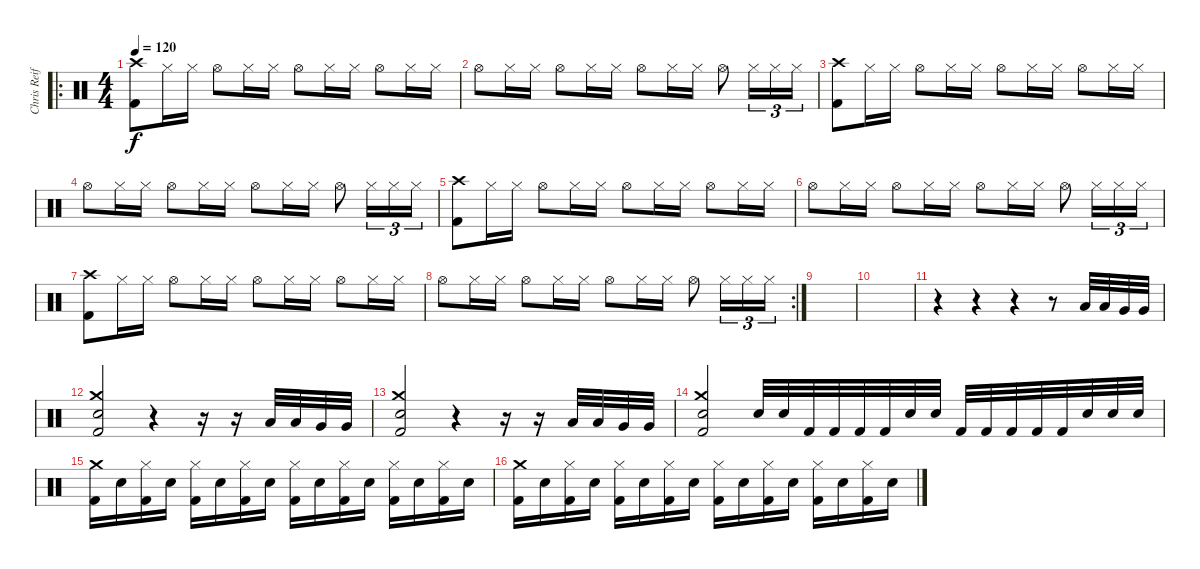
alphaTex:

\track ("Chris Reifert" "Chris Reif") {instrument percussion}
\staff {score}
\articulation defaults
\ro
\ts (4 4)
\tempo 120
\clef neutral
\ks c
("Crash high (hit)" "Kick (hit) 2").8{dy f} "Hi-Hat (closed)".16 "Hi-Hat (closed)".16 "Hi-Hat (open)".8 "Hi-Hat (closed)".16 "Hi-Hat (closed)".16 "Hi-Hat (open)".8 "Hi-Hat (closed)".16 "Hi-Hat (closed)".16 "Hi-Hat (open)".8 "Hi-Hat (closed)".16 "Hi-Hat (closed)".16 |
"Hi-Hat (open)".8 "Hi-Hat (closed)".16 "Hi-Hat (closed)".16 "Hi-Hat (open)".8 "Hi-Hat (closed)".16 "Hi-Hat (closed)".16 "Hi-Hat (open)".8 "Hi-Hat (closed)".16 "Hi-Hat (closed)".16 "Hi-Hat (open)".8 "Hi-Hat (closed)".16{tu (3 2)} "Hi-Hat (closed)".16{tu (3 2)} "Hi-Hat (closed)".16{tu (3 2)} |
("Crash high (hit)" "Kick (hit) 2").8 "Hi-Hat (closed)".16 "Hi-Hat (closed)".16 "Hi-Hat (open)".8 "Hi-Hat (closed)".16 "Hi-Hat (closed)".16 "Hi-Hat (open)".8 "Hi-Hat (closed)".16 "Hi-Hat (closed)".16 "Hi-Hat (open)".8 "Hi-Hat (closed)".16 "Hi-Hat (closed)".16 |
"Hi-Hat (open)".8 "Hi-Hat (closed)".16 "Hi-Hat (closed)".16 "Hi-Hat (open)".8 "Hi-Hat (closed)".16 "Hi-Hat (closed)".16 "Hi-Hat (open)".8 "Hi-Hat (closed)".16 "Hi-Hat (closed)".16 "Hi-Hat (open)".8 "Hi-Hat (closed)".16{tu (3 2)} "Hi-Hat (closed)".16{tu (3 2)} "Hi-Hat (closed)".16{tu (3 2)} |
("Crash high (hit)" "Kick (hit) 2").8 "Hi-Hat (closed)".16 "Hi-Hat (closed)".16 "Hi-Hat (open)".8 "Hi-Hat (closed)".16 "Hi-Hat (closed)".16 "Hi-Hat (open)".8 "Hi-Hat (closed)".16 "Hi-Hat (closed)".16 "Hi-Hat (open)".8 "Hi-Hat (closed)".16 "Hi-Hat (closed)".16 |
"Hi-Hat (open)".8 "Hi-Hat (closed)".16 "Hi-Hat (closed)".16 "Hi-Hat (open)".8 "Hi-Hat (closed)".16 "Hi-Hat (closed)".16 "Hi-Hat (open)".8 "Hi-Hat (closed)".16 "Hi-Hat (closed)".16 "Hi-Hat (open)".8 "Hi-Hat (closed)".16{tu (3 2)} "Hi-Hat (closed)".16{tu (3 2)} "Hi-Hat (closed)".16{tu (3 2)} |
("Crash high (hit)" "Kick (hit) 2").8 "Hi-Hat (closed)".16 "Hi-Hat (closed)".16 "Hi-Hat (open)".8 "Hi-Hat (closed)".16 "Hi-Hat (closed)".16 "Hi-Hat (open)".8 "Hi-Hat (closed)".16 "Hi-Hat (closed)".16 "Hi-Hat (open)".8 "Hi-Hat (closed)".16 "Hi-Hat (closed)".16 |
\rc 2 "Hi-Hat (open)".8 "Hi-Hat (closed)".16 "Hi-Hat (closed)".16 "Hi-Hat (open)".8 "Hi-Hat (closed)".16 "Hi-Hat (closed)".16 "Hi-Hat (open)".8 "Hi-Hat (closed)".16 "Hi-Hat (closed)".16 "Hi-Hat (open)".8 "Hi-Hat (closed)".16{tu (3 2)} "Hi-Hat (closed)".16{tu (3 2)} "Hi-Hat (closed)".16{tu (3 2)}
|
|
|
r.4 r.4 r.4 r.8 "Low Tom (hit)".32 "Low Tom (hit)".32 "Very Low Tom (hit)".32 "Very Low Tom (hit)".32 |
("Crash medium (hit)" "Electric Snare (hit)" "Kick (hit) 2").2 r.4 r.16 r.16 "Low Tom (hit)".32 "Low Tom (hit)".32 "Very Low Tom (hit)".32 "Very Low Tom (hit)".32 |
("Crash medium (hit)" "Electric Snare (hit)" "Kick (hit) 2").2 r.4 r.16 r.16 "Low Tom (hit)".32 "Low Tom (hit)".32 "Very Low Tom (hit)".32 "Very Low Tom (hit)".32 |
("Crash medium (hit)" "Electric Snare (hit)" "Kick (hit) 2").2 "Electric Snare (hit)".32 "Electric Snare (hit)".32 "Kick (hit) 2".32 "Kick (hit) 2".32 "Kick (hit) 2".32 "Kick (hit) 2".32 "Electric Snare (hit)".32 "Electric Snare (hit)".32 "Kick (hit) 2".32 "Kick (hit) 2".32 "Kick (hit) 2".32 "Kick (hit) 2".32 "Kick (hit) 2".32 "Electric Snare (hit)".32 "Electric Snare (hit)".32 "Electric Snare (hit)".32 |
("Crash medium (hit)" "Kick (hit) 2").16 "Electric Snare (hit)".16 ("Hi-Hat (closed)" "Kick (hit) 2").16 "Electric Snare (hit)".16 ("Hi-Hat (closed)" "Kick (hit) 2").16 "Electric Snare (hit)".16 ("Hi-Hat (closed)" "Kick (hit) 2").16 "Electric Snare (hit)".16 ("Hi-Hat (closed)" "Kick (hit) 2").16 "Electric Snare (hit)".16 ("Hi-Hat (closed)" "Kick (hit) 2").16 "Electric Snare (hit)".16 ("Hi-Hat (closed)" "Kick (hit) 2").16 "Electric Snare (hit)".16 ("Hi-Hat (closed)" "Kick (hit) 2").16 "Electric Snare (hit)".16 |
("Crash medium (hit)" "Kick (hit) 2").16 "Electric Snare (hit)".16 ("Hi-Hat (closed)" "Kick (hit) 2").16 "Electric Snare (hit)".16 ("Hi-Hat (closed)" "Kick (hit) 2").16 "Electric Snare (hit)".16 ("Hi-Hat (closed)" "Kick (hit) 2").16 "Electric Snare (hit)".16 ("Hi-Hat (closed)" "Kick (hit) 2").16 "Electric Snare (hit)".16 ("Hi-Hat (closed)" "Kick (hit) 2").16 "Electric Snare (hit)".16 ("Hi-Hat (closed)" "Kick (hit) 2").16 "Electric Snare (hit)".16 ("Hi-Hat (closed)" "Kick (hit) 2").16 "Electric Snare (hit)".16
